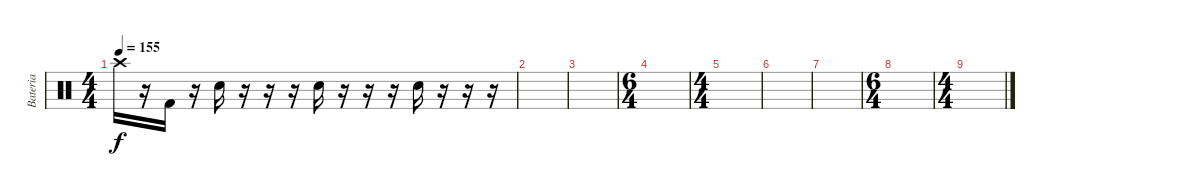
\track ("Bateria" "Bateria") {instrument percussion}
\staff {score}
\articulation defaults
\ts (4 4)
\tempo 155
\clef neutral
\ks c "Crash high (hit)".16{dy f}
r.16 "Kick (hit) 2".16 r.16 "Electric Snare (hit)".16 r.16 r.16 r.16 "Electric Snare (hit)".16 r.16 r.16 r.16 "Electric Snare (hit)".16 r.16 r.16 r.16 |
|
|
\ts (6 4)
|
\ts (4 4)
|
|
|
\ts (6 4)
|
\ts (4 4)
